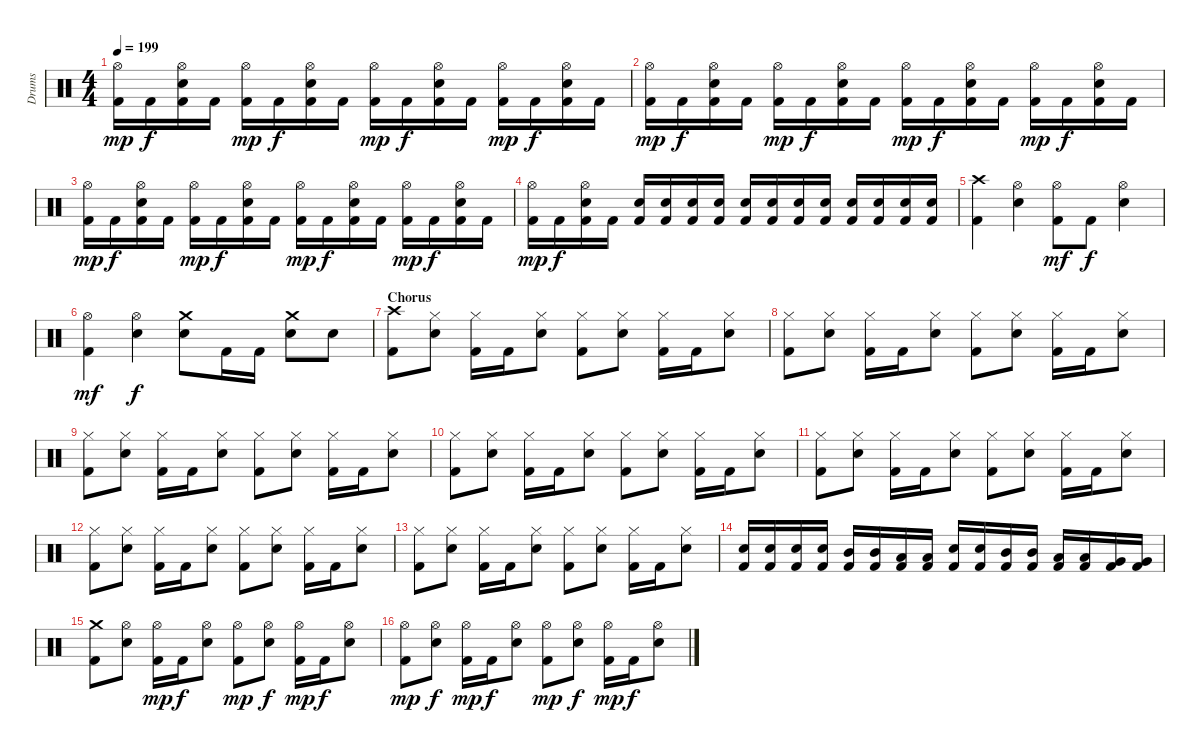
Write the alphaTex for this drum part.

\track ("Drums" "Drums") {instrument percussion}
\staff {score}
\articulation defaults
\ts (4 4)
\tempo 199
\clef neutral
\ks c
("Kick (hit) 2" "Hi-Hat (open)").16{dy mp} "Kick (hit) 2".16{dy f} ("Kick (hit) 2" "Snare (hit) 2" "Hi-Hat (open)").16 "Kick (hit) 2".16 ("Kick (hit) 2" "Hi-Hat (open)").16{dy mp} "Kick (hit) 2".16{dy f} ("Kick (hit) 2" "Snare (hit) 2" "Hi-Hat (open)").16 "Kick (hit) 2".16 ("Kick (hit) 2" "Hi-Hat (open)").16{dy mp} "Kick (hit) 2".16{dy f} ("Kick (hit) 2" "Snare (hit) 2" "Hi-Hat (open)").16 "Kick (hit) 2".16 ("Kick (hit) 2" "Hi-Hat (open)").16{dy mp} "Kick (hit) 2".16{dy f} ("Kick (hit) 2" "Snare (hit) 2" "Hi-Hat (open)").16 "Kick (hit) 2".16 |
("Kick (hit) 2" "Hi-Hat (open)").16{dy mp} "Kick (hit) 2".16{dy f} ("Kick (hit) 2" "Snare (hit) 2" "Hi-Hat (open)").16 "Kick (hit) 2".16 ("Kick (hit) 2" "Hi-Hat (open)").16{dy mp} "Kick (hit) 2".16{dy f} ("Kick (hit) 2" "Snare (hit) 2" "Hi-Hat (open)").16 "Kick (hit) 2".16 ("Kick (hit) 2" "Hi-Hat (open)").16{dy mp} "Kick (hit) 2".16{dy f} ("Kick (hit) 2" "Snare (hit) 2" "Hi-Hat (open)").16 "Kick (hit) 2".16 ("Kick (hit) 2" "Hi-Hat (open)").16{dy mp} "Kick (hit) 2".16{dy f} ("Kick (hit) 2" "Snare (hit) 2" "Hi-Hat (open)").16 "Kick (hit) 2".16 |
("Kick (hit) 2" "Hi-Hat (open)").16{dy mp} "Kick (hit) 2".16{dy f} ("Kick (hit) 2" "Snare (hit) 2" "Hi-Hat (open)").16 "Kick (hit) 2".16 ("Kick (hit) 2" "Hi-Hat (open)").16{dy mp} "Kick (hit) 2".16{dy f} ("Kick (hit) 2" "Snare (hit) 2" "Hi-Hat (open)").16 "Kick (hit) 2".16 ("Kick (hit) 2" "Hi-Hat (open)").16{dy mp} "Kick (hit) 2".16{dy f} ("Kick (hit) 2" "Snare (hit) 2" "Hi-Hat (open)").16 "Kick (hit) 2".16 ("Kick (hit) 2" "Hi-Hat (open)").16{dy mp} "Kick (hit) 2".16{dy f} ("Kick (hit) 2" "Snare (hit) 2" "Hi-Hat (open)").16 "Kick (hit) 2".16 |
("Kick (hit) 2" "Hi-Hat (open)").16{dy mp} "Kick (hit) 2".16{dy f} ("Kick (hit) 2" "Snare (hit) 2" "Hi-Hat (open)").16 "Kick (hit) 2".16 ("Kick (hit) 2" "Snare (hit) 2").16 ("Kick (hit) 2" "Snare (hit) 2").16 ("Kick (hit) 2" "Snare (hit) 2").16 ("Kick (hit) 2" "Snare (hit) 2").16 ("Kick (hit) 2" "Snare (hit) 2").16 ("Kick (hit) 2" "Snare (hit) 2").16 ("Kick (hit) 2" "Snare (hit) 2").16 ("Kick (hit) 2" "Snare (hit) 2").16 ("Kick (hit) 2" "Snare (hit) 2").16 ("Kick (hit) 2" "Snare (hit) 2").16 ("Kick (hit) 2" "Snare (hit) 2").16 ("Kick (hit) 2" "Snare (hit) 2").16 |
("Kick (hit) 2" "Crash high (hit)").4 ("Snare (hit) 2" "Hi-Hat (open)").4 ("Kick (hit) 2" "Hi-Hat (open)").8{dy mf} "Kick (hit) 2".8{dy f} ("Snare (hit) 2" "Hi-Hat (open)").4 |
("Kick (hit) 2" "Hi-Hat (open)").4{dy mf} ("Snare (hit) 2" "Hi-Hat (open)").4{dy f} ("Snare (hit) 2" "Crash medium (hit)").8 "Kick (hit) 2".16 "Kick (hit) 2".16 ("Snare (hit) 2" "Crash medium (hit)").8 "Snare (hit) 2".8 |
\section ("" "Chorus")
("Kick (hit) 2" "Crash high (hit)").8 ("Snare (hit) 2" "Hi-Hat (closed)").8 ("Kick (hit) 2" "Hi-Hat (closed)").16 "Kick (hit) 2".16 ("Snare (hit) 2" "Hi-Hat (closed)").8 ("Kick (hit) 2" "Hi-Hat (closed)").8 ("Snare (hit) 2" "Hi-Hat (closed)").8 ("Kick (hit) 2" "Hi-Hat (closed)").16 "Kick (hit) 2".16 ("Snare (hit) 2" "Hi-Hat (closed)").8 |
("Kick (hit) 2" "Hi-Hat (closed)").8 ("Snare (hit) 2" "Hi-Hat (closed)").8 ("Kick (hit) 2" "Hi-Hat (closed)").16 "Kick (hit) 2".16 ("Snare (hit) 2" "Hi-Hat (closed)").8 ("Kick (hit) 2" "Hi-Hat (closed)").8 ("Snare (hit) 2" "Hi-Hat (closed)").8 ("Kick (hit) 2" "Hi-Hat (closed)").16 "Kick (hit) 2".16 ("Snare (hit) 2" "Hi-Hat (closed)").8 |
("Kick (hit) 2" "Hi-Hat (closed)").8 ("Snare (hit) 2" "Hi-Hat (closed)").8 ("Kick (hit) 2" "Hi-Hat (closed)").16 "Kick (hit) 2".16 ("Snare (hit) 2" "Hi-Hat (closed)").8 ("Kick (hit) 2" "Hi-Hat (closed)").8 ("Snare (hit) 2" "Hi-Hat (closed)").8 ("Kick (hit) 2" "Hi-Hat (closed)").16 "Kick (hit) 2".16 ("Snare (hit) 2" "Hi-Hat (closed)").8 |
("Kick (hit) 2" "Hi-Hat (closed)").8 ("Snare (hit) 2" "Hi-Hat (closed)").8 ("Kick (hit) 2" "Hi-Hat (closed)").16 "Kick (hit) 2".16 ("Snare (hit) 2" "Hi-Hat (closed)").8 ("Kick (hit) 2" "Hi-Hat (closed)").8 ("Snare (hit) 2" "Hi-Hat (closed)").8 ("Kick (hit) 2" "Hi-Hat (closed)").16 "Kick (hit) 2".16 ("Snare (hit) 2" "Hi-Hat (closed)").8 |
("Kick (hit) 2" "Hi-Hat (closed)").8 ("Snare (hit) 2" "Hi-Hat (closed)").8 ("Kick (hit) 2" "Hi-Hat (closed)").16 "Kick (hit) 2".16 ("Snare (hit) 2" "Hi-Hat (closed)").8 ("Kick (hit) 2" "Hi-Hat (closed)").8 ("Snare (hit) 2" "Hi-Hat (closed)").8 ("Kick (hit) 2" "Hi-Hat (closed)").16 "Kick (hit) 2".16 ("Snare (hit) 2" "Hi-Hat (closed)").8 |
("Kick (hit) 2" "Hi-Hat (closed)").8 ("Snare (hit) 2" "Hi-Hat (closed)").8 ("Kick (hit) 2" "Hi-Hat (closed)").16 "Kick (hit) 2".16 ("Snare (hit) 2" "Hi-Hat (closed)").8 ("Kick (hit) 2" "Hi-Hat (closed)").8 ("Snare (hit) 2" "Hi-Hat (closed)").8 ("Kick (hit) 2" "Hi-Hat (closed)").16 "Kick (hit) 2".16 ("Snare (hit) 2" "Hi-Hat (closed)").8 |
("Kick (hit) 2" "Hi-Hat (closed)").8 ("Snare (hit) 2" "Hi-Hat (closed)").8 ("Kick (hit) 2" "Hi-Hat (closed)").16 "Kick (hit) 2".16 ("Snare (hit) 2" "Hi-Hat (closed)").8 ("Kick (hit) 2" "Hi-Hat (closed)").8 ("Snare (hit) 2" "Hi-Hat (closed)").8 ("Kick (hit) 2" "Hi-Hat (closed)").16 "Kick (hit) 2".16 ("Snare (hit) 2" "Hi-Hat (closed)").8 |
("Kick (hit) 2" "Snare (hit) 2").16 ("Kick (hit) 2" "Snare (hit) 2").16 ("Kick (hit) 2" "Snare (hit) 2").16 ("Kick (hit) 2" "Snare (hit) 2").16 ("Kick (hit) 2" "Mid Tom (hit)").16 ("Kick (hit) 2" "Mid Tom (hit)").16 ("Kick (hit) 2" "Low Tom (hit)").16 ("Kick (hit) 2" "Low Tom (hit)").16 ("Kick (hit) 2" "Snare (hit) 2").16 ("Kick (hit) 2" "Snare (hit) 2").16 ("Kick (hit) 2" "Mid Tom (hit)").16 ("Kick (hit) 2" "Mid Tom (hit)").16 ("Kick (hit) 2" "Low Tom (hit)").16 ("Kick (hit) 2" "Low Tom (hit)").16 ("Kick (hit) 2" "Very Low Tom (hit)").16 ("Kick (hit) 2" "Very Low Tom (hit)").16 |
\section ("" "")
("Kick (hit) 2" "Crash medium (hit)").8 ("Snare (hit) 2" "Hi-Hat (open)").8 ("Kick (hit) 2" "Hi-Hat (open)").16{dy mp} "Kick (hit) 2".16{dy f} ("Snare (hit) 2" "Hi-Hat (open)").8 ("Kick (hit) 2" "Hi-Hat (open)").8{dy mp} ("Snare (hit) 2" "Hi-Hat (open)").8{dy f} ("Kick (hit) 2" "Hi-Hat (open)").16{dy mp} "Kick (hit) 2".16{dy f} ("Snare (hit) 2" "Hi-Hat (open)").8 |
("Kick (hit) 2" "Hi-Hat (open)").8{dy mp} ("Snare (hit) 2" "Hi-Hat (open)").8{dy f} ("Kick (hit) 2" "Hi-Hat (open)").16{dy mp} "Kick (hit) 2".16{dy f} ("Snare (hit) 2" "Hi-Hat (open)").8 ("Kick (hit) 2" "Hi-Hat (open)").8{dy mp} ("Snare (hit) 2" "Hi-Hat (open)").8{dy f} ("Kick (hit) 2" "Hi-Hat (open)").16{dy mp} "Kick (hit) 2".16{dy f} ("Snare (hit) 2" "Hi-Hat (open)").8
